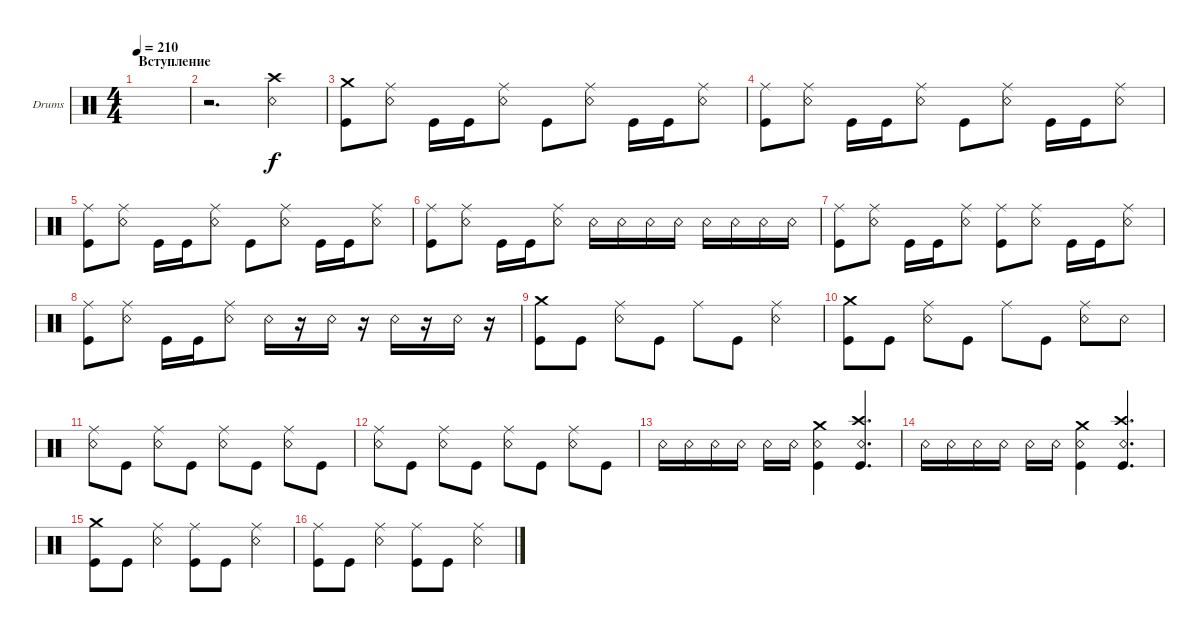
\defaultSystemsLayout 4
\bracketExtendMode groupsimilarinstruments
\firstSystemTrackNameOrientation horizontal
\otherSystemsTrackNameOrientation horizontal
\track ("Drumkit" "Drums") {instrument percussion}
\staff {score}
\articulation defaults
\ts (4 4)
\section ("" "Вступление")
\tempo 210
\clef neutral
\scale
0.474178
\ks c
|
\scale
0.262911 r.2{d} ("Snare (rim shot)" "Crash high (hit)").4 |
\scale
0.262911 ("Kick (hit)" "Crash medium (hit)").8 ("Snare (rim shot)" "Ride (middle)").8 "Kick (hit)".16 "Kick (hit)".16 ("Snare (rim shot)" "Ride (middle)").8 "Kick (hit)".8 ("Snare (rim shot)" "Ride (middle)").8 "Kick (hit)".16 "Kick (hit)".16 ("Snare (rim shot)" "Ride (middle)").8 |
\scale
0.333333 ("Kick (hit)" "Ride (middle)").8 ("Snare (rim shot)" "Ride (middle)").8 "Kick (hit)".16 "Kick (hit)".16 ("Snare (rim shot)" "Ride (middle)").8 "Kick (hit)".8 ("Snare (rim shot)" "Ride (middle)").8 "Kick (hit)".16 "Kick (hit)".16 ("Snare (rim shot)" "Ride (middle)").8 |
\scale
0.333333 ("Kick (hit)" "Ride (middle)").8 ("Snare (rim shot)" "Ride (middle)").8 "Kick (hit)".16 "Kick (hit)".16 ("Snare (rim shot)" "Ride (middle)").8 "Kick (hit)".8 ("Snare (rim shot)" "Ride (middle)").8 "Kick (hit)".16 "Kick (hit)".16 ("Snare (rim shot)" "Ride (middle)").8 |
\scale
0.333333 ("Kick (hit)" "Ride (middle)").8 ("Snare (rim shot)" "Ride (middle)").8 "Kick (hit)".16 "Kick (hit)".16 ("Snare (rim shot)" "Ride (middle)").8 "Snare (rim shot)".16 "Snare (rim shot)".16 "Snare (rim shot)".16 "Snare (rim shot)".16 "Snare (rim shot)".16 "Snare (rim shot)".16 "Snare (rim shot)".16 "Snare (rim shot)".16 |
\scale
0.333333 ("Kick (hit)" "Ride (middle)").8 ("Snare (rim shot)" "Ride (middle)").8 "Kick (hit)".16 "Kick (hit)".16 ("Snare (rim shot)" "Ride (middle)").8 ("Kick (hit)" "Ride (middle)").8 ("Snare (rim shot)" "Ride (middle)").8 "Kick (hit)".16 "Kick (hit)".16 ("Snare (rim shot)" "Ride (middle)").8 |
\scale
0.333333 ("Kick (hit)" "Ride (middle)").8 ("Snare (rim shot)" "Ride (middle)").8 "Kick (hit)".16 "Kick (hit)".16 ("Snare (rim shot)" "Ride (middle)").8 "Snare (rim shot)".16 r.16 "Snare (rim shot)".16 r.16 "Snare (rim shot)".16 r.16 "Snare (rim shot)".16 r.16 |
\scale
0.333333 ("Kick (hit)" "Crash medium (hit)").8 "Kick (hit)".8 ("Snare (rim shot)" "Ride (middle)").8 "Kick (hit)".8 "Ride (middle)".8 "Kick (hit)".8 ("Snare (rim shot)" "Ride (middle)").4 |
\scale
0.333333 ("Kick (hit)" "Crash medium (hit)").8 "Kick (hit)".8 ("Snare (rim shot)" "Ride (middle)").8 "Kick (hit)".8 "Ride (middle)".8 "Kick (hit)".8 ("Snare (rim shot)" "Ride (middle)").8 "Snare (rim shot)".8 |
\scale
0.333333 ("Snare (rim shot)" "Ride (middle)").8 "Kick (hit)".8 ("Snare (rim shot)" "Ride (middle)").8 "Kick (hit)".8 ("Snare (rim shot)" "Ride (middle)").8 "Kick (hit)".8 ("Snare (rim shot)" "Ride (middle)").8 "Kick (hit)".8 |
\scale
0.333333 ("Snare (rim shot)" "Ride (middle)").8 "Kick (hit)".8 ("Snare (rim shot)" "Ride (middle)").8 "Kick (hit)".8 ("Snare (rim shot)" "Ride (middle)").8 "Kick (hit)".8 ("Snare (rim shot)" "Ride (middle)").8 "Kick (hit)".8 |
\scale
0.333333 "Snare (rim shot)".16 "Snare (rim shot)".16 "Snare (rim shot)".16 "Snare (rim shot)".16 "Snare (rim shot)".16 "Snare (rim shot)".16 ("Snare (rim shot)" "Kick (hit)" "Crash medium (hit)").4 ("Snare (rim shot)" "Kick (hit)" "Crash high (hit)").4{d} |
\scale
0.333333 "Snare (rim shot)".16 "Snare (rim shot)".16 "Snare (rim shot)".16 "Snare (rim shot)".16 "Snare (rim shot)".16 "Snare (rim shot)".16 ("Snare (rim shot)" "Kick (hit)" "Crash medium (hit)").4 ("Snare (rim shot)" "Kick (hit)" "Crash high (hit)").4{d} |
\scale
0.333333 ("Kick (hit)" "Crash medium (hit)").8 "Kick (hit)".8 ("Snare (rim shot)" "Ride (middle)").4 ("Kick (hit)" "Ride (middle)").8 "Kick (hit)".8 ("Snare (rim shot)" "Ride (middle)").4 |
("Kick (hit)" "Ride (middle)").8 "Kick (hit)".8 ("Snare (rim shot)" "Ride (middle)").4 ("Kick (hit)" "Ride (middle)").8 "Kick (hit)".8 ("Snare (rim shot)" "Ride (middle)").4
